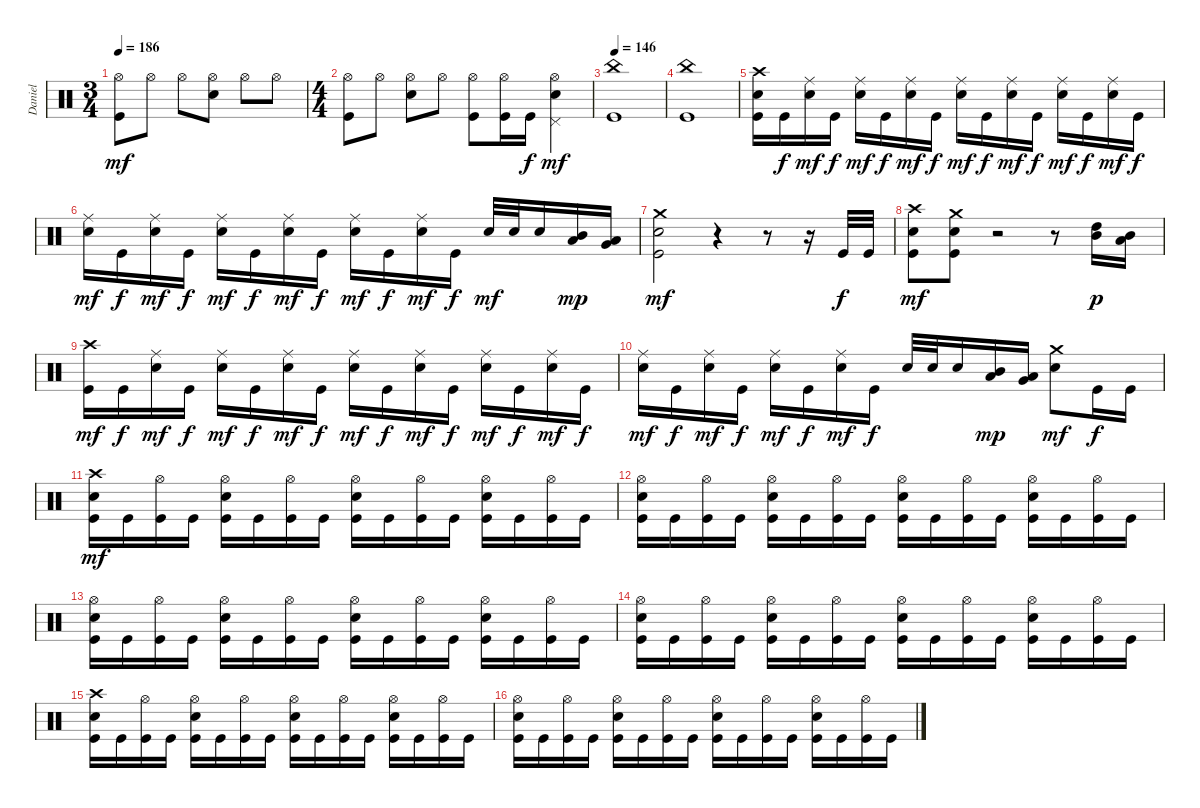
\track ("Daniel" "Daniel") {instrument percussion}
\staff {score}
\articulation defaults
\ts (3 4)
\tempo 186
\clef neutral
\ks c
("Kick (hit)" "Hi-Hat (open)").8{dy mf} "Hi-Hat (open)".8 "Hi-Hat (open)".8 ("Electric Snare (hit)" "Hi-Hat (open)").8 "Hi-Hat (open)".8 "Hi-Hat (open)".8 |
\ts (4 4)
("Kick (hit)" "Hi-Hat (open)").8 "Hi-Hat (open)".8 ("Electric Snare (hit)" "Hi-Hat (open)").8 "Hi-Hat (open)".8 ("Kick (hit)" "Hi-Hat (open)").8 ("Kick (hit)" "Hi-Hat (open)").16 "Kick (hit)".16{dy f} ("Electric Snare (hit)" "Hi-Hat (open)" "Pedal Hi-Hat (hit)").4{dy mf} |
\tempo 146
("Kick (hit)" "China (hit)").1 |
("Kick (hit)" "China (hit)").1 |
("Kick (hit)" "Electric Snare (hit)" "Crash high (hit)").16 "Kick (hit)".16{dy f} ("Electric Snare (hit)" "Ride (middle)").16{dy mf} "Kick (hit)".16{dy f} ("Electric Snare (hit)" "Ride (middle)").16{dy mf} "Kick (hit)".16{dy f} ("Electric Snare (hit)" "Ride (middle)").16{dy mf} "Kick (hit)".16{dy f} ("Electric Snare (hit)" "Ride (middle)").16{dy mf} "Kick (hit)".16{dy f} ("Electric Snare (hit)" "Ride (middle)").16{dy mf} "Kick (hit)".16{dy f} ("Electric Snare (hit)" "Ride (middle)").16{dy mf} "Kick (hit)".16{dy f} ("Electric Snare (hit)" "Ride (middle)").16{dy mf} "Kick (hit)".16{dy f} |
("Electric Snare (hit)" "Ride (middle)").16{dy mf} "Kick (hit)".16{dy f} ("Electric Snare (hit)" "Ride (middle)").16{dy mf} "Kick (hit)".16{dy f} ("Electric Snare (hit)" "Ride (middle)").16{dy mf} "Kick (hit)".16{dy f} ("Electric Snare (hit)" "Ride (middle)").16{dy mf} "Kick (hit)".16{dy f} ("Electric Snare (hit)" "Ride (middle)").16{dy mf} "Kick (hit)".16{dy f} ("Electric Snare (hit)" "Ride (middle)").16{dy mf} "Kick (hit)".16{dy f} "Electric Snare (hit)".32{dy mf} "Electric Snare (hit)".32 "Electric Snare (hit)".16 ("Low Tom (hit)" "Mid Tom (hit)").16{dy mp} ("Very Low Tom (hit)" "Low Tom (hit)").16 |
("Kick (hit)" "Electric Snare (hit)" "Crash medium (hit)").2{dy mf} r.4 r.8 r.16 "Kick (hit)".32{dy f} "Kick (hit)".32 |
("Kick (hit)" "Electric Snare (hit)" "Crash high (hit)").8{dy mf} ("Kick (hit)" "Electric Snare (hit)" "Crash medium (hit)").8 r.2 r.8 ("High Tom (hit)" "Mid Tom (hit)").16{dy p} ("Mid Tom (hit)" "Low Tom (hit)").16 |
("Kick (hit)" "Crash high (hit)").16{dy mf} "Kick (hit)".16{dy f} ("Electric Snare (hit)" "Ride (middle)").16{dy mf} "Kick (hit)".16{dy f} ("Electric Snare (hit)" "Ride (middle)").16{dy mf} "Kick (hit)".16{dy f} ("Electric Snare (hit)" "Ride (middle)").16{dy mf} "Kick (hit)".16{dy f} ("Electric Snare (hit)" "Ride (middle)").16{dy mf} "Kick (hit)".16{dy f} ("Electric Snare (hit)" "Ride (middle)").16{dy mf} "Kick (hit)".16{dy f} ("Electric Snare (hit)" "Ride (middle)").16{dy mf} "Kick (hit)".16{dy f} ("Electric Snare (hit)" "Ride (middle)").16{dy mf} "Kick (hit)".16{dy f} |
("Electric Snare (hit)" "Ride (middle)").16{dy mf} "Kick (hit)".16{dy f} ("Electric Snare (hit)" "Ride (middle)").16{dy mf} "Kick (hit)".16{dy f} ("Electric Snare (hit)" "Ride (middle)").16{dy mf} "Kick (hit)".16{dy f} ("Electric Snare (hit)" "Ride (middle)").16{dy mf} "Kick (hit)".16{dy f} "Electric Snare (hit)".32 "Electric Snare (hit)".32 "Electric Snare (hit)".16 ("Low Tom (hit)" "Mid Tom (hit)").16{dy mp} ("Very Low Tom (hit)" "Low Tom (hit)").16 ("Electric Snare (hit)" "Crash medium (hit)").8{dy mf} "Kick (hit)".16{dy f} "Kick (hit)".16 |
("Kick (hit)" "Electric Snare (hit)" "Crash high (hit)").16{dy mf} "Kick (hit)".16 ("Kick (hit)" "Hi-Hat (open)").16 "Kick (hit)".16 ("Kick (hit)" "Electric Snare (hit)" "Hi-Hat (open)").16 "Kick (hit)".16 ("Kick (hit)" "Hi-Hat (open)").16 "Kick (hit)".16 ("Kick (hit)" "Electric Snare (hit)" "Hi-Hat (open)").16 "Kick (hit)".16 ("Kick (hit)" "Hi-Hat (open)").16 "Kick (hit)".16 ("Kick (hit)" "Electric Snare (hit)" "Hi-Hat (open)").16 "Kick (hit)".16 ("Kick (hit)" "Hi-Hat (open)").16 "Kick (hit)".16 |
("Kick (hit)" "Electric Snare (hit)" "Hi-Hat (open)").16 "Kick (hit)".16 ("Kick (hit)" "Hi-Hat (open)").16 "Kick (hit)".16 ("Kick (hit)" "Electric Snare (hit)" "Hi-Hat (open)").16 "Kick (hit)".16 ("Kick (hit)" "Hi-Hat (open)").16 "Kick (hit)".16 ("Kick (hit)" "Electric Snare (hit)" "Hi-Hat (open)").16 "Kick (hit)".16 ("Kick (hit)" "Hi-Hat (open)").16 "Kick (hit)".16 ("Kick (hit)" "Electric Snare (hit)" "Hi-Hat (open)").16 "Kick (hit)".16 ("Kick (hit)" "Hi-Hat (open)").16 "Kick (hit)".16 |
("Kick (hit)" "Electric Snare (hit)" "Hi-Hat (open)").16 "Kick (hit)".16 ("Kick (hit)" "Hi-Hat (open)").16 "Kick (hit)".16 ("Kick (hit)" "Electric Snare (hit)" "Hi-Hat (open)").16 "Kick (hit)".16 ("Kick (hit)" "Hi-Hat (open)").16 "Kick (hit)".16 ("Kick (hit)" "Electric Snare (hit)" "Hi-Hat (open)").16 "Kick (hit)".16 ("Kick (hit)" "Hi-Hat (open)").16 "Kick (hit)".16 ("Kick (hit)" "Electric Snare (hit)" "Hi-Hat (open)").16 "Kick (hit)".16 ("Kick (hit)" "Hi-Hat (open)").16 "Kick (hit)".16 |
("Kick (hit)" "Electric Snare (hit)" "Hi-Hat (open)").16 "Kick (hit)".16 ("Kick (hit)" "Hi-Hat (open)").16 "Kick (hit)".16 ("Kick (hit)" "Electric Snare (hit)" "Hi-Hat (open)").16 "Kick (hit)".16 ("Kick (hit)" "Hi-Hat (open)").16 "Kick (hit)".16 ("Kick (hit)" "Electric Snare (hit)" "Hi-Hat (open)").16 "Kick (hit)".16 ("Kick (hit)" "Hi-Hat (open)").16 "Kick (hit)".16 ("Kick (hit)" "Electric Snare (hit)" "Hi-Hat (open)").16 "Kick (hit)".16 ("Kick (hit)" "Hi-Hat (open)").16 "Kick (hit)".16 |
("Kick (hit)" "Electric Snare (hit)" "Crash high (hit)").16 "Kick (hit)".16 ("Kick (hit)" "Hi-Hat (open)").16 "Kick (hit)".16 ("Kick (hit)" "Electric Snare (hit)" "Hi-Hat (open)").16 "Kick (hit)".16 ("Kick (hit)" "Hi-Hat (open)").16 "Kick (hit)".16 ("Kick (hit)" "Electric Snare (hit)" "Hi-Hat (open)").16 "Kick (hit)".16 ("Kick (hit)" "Hi-Hat (open)").16 "Kick (hit)".16 ("Kick (hit)" "Electric Snare (hit)" "Hi-Hat (open)").16 "Kick (hit)".16 ("Kick (hit)" "Hi-Hat (open)").16 "Kick (hit)".16 |
("Kick (hit)" "Electric Snare (hit)" "Hi-Hat (open)").16 "Kick (hit)".16 ("Kick (hit)" "Hi-Hat (open)").16 "Kick (hit)".16 ("Kick (hit)" "Electric Snare (hit)" "Hi-Hat (open)").16 "Kick (hit)".16 ("Kick (hit)" "Hi-Hat (open)").16 "Kick (hit)".16 ("Kick (hit)" "Electric Snare (hit)" "Hi-Hat (open)").16 "Kick (hit)".16 ("Kick (hit)" "Hi-Hat (open)").16 "Kick (hit)".16 ("Kick (hit)" "Electric Snare (hit)" "Hi-Hat (open)").16 "Kick (hit)".16 ("Kick (hit)" "Hi-Hat (open)").16 "Kick (hit)".16
